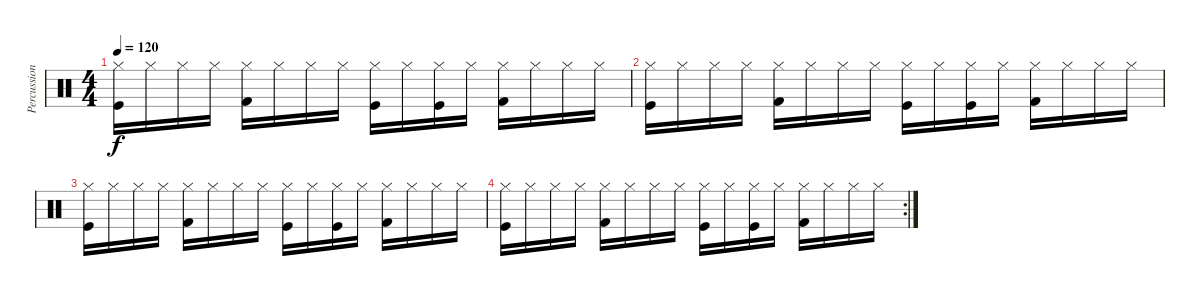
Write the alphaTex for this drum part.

\track ("Percussions" "Percussion") {instrument percussion}
\staff {score}
\articulation defaults
\ts (4 4)
\tempo 120
\clef neutral
\ks c
("Hi-Hat (closed)" "Kick (hit)").16{dy f} "Hi-Hat (closed)".16 "Hi-Hat (closed)".16 "Hi-Hat (closed)".16 ("Hi-Hat (closed)" "Kick (hit) 2").16 "Hi-Hat (closed)".16 "Hi-Hat (closed)".16 "Hi-Hat (closed)".16 ("Hi-Hat (closed)" "Kick (hit)").16 "Hi-Hat (closed)".16 ("Hi-Hat (closed)" "Kick (hit)").16 "Hi-Hat (closed)".16 ("Hi-Hat (closed)" "Kick (hit) 2").16 "Hi-Hat (closed)".16 "Hi-Hat (closed)".16 "Hi-Hat (closed)".16 |
("Hi-Hat (closed)" "Kick (hit)").16 "Hi-Hat (closed)".16 "Hi-Hat (closed)".16 "Hi-Hat (closed)".16 ("Hi-Hat (closed)" "Kick (hit) 2").16 "Hi-Hat (closed)".16 "Hi-Hat (closed)".16 "Hi-Hat (closed)".16 ("Hi-Hat (closed)" "Kick (hit)").16 "Hi-Hat (closed)".16 ("Hi-Hat (closed)" "Kick (hit)").16 "Hi-Hat (closed)".16 ("Hi-Hat (closed)" "Kick (hit) 2").16 "Hi-Hat (closed)".16 "Hi-Hat (closed)".16 "Hi-Hat (closed)".16 |
("Hi-Hat (closed)" "Kick (hit)").16 "Hi-Hat (closed)".16 "Hi-Hat (closed)".16 "Hi-Hat (closed)".16 ("Hi-Hat (closed)" "Kick (hit) 2").16 "Hi-Hat (closed)".16 "Hi-Hat (closed)".16 "Hi-Hat (closed)".16 ("Hi-Hat (closed)" "Kick (hit)").16 "Hi-Hat (closed)".16 ("Hi-Hat (closed)" "Kick (hit)").16 "Hi-Hat (closed)".16 ("Hi-Hat (closed)" "Kick (hit) 2").16 "Hi-Hat (closed)".16 "Hi-Hat (closed)".16 "Hi-Hat (closed)".16 |
\rc 2
("Hi-Hat (closed)" "Kick (hit)").16 "Hi-Hat (closed)".16 "Hi-Hat (closed)".16 "Hi-Hat (closed)".16 ("Hi-Hat (closed)" "Kick (hit) 2").16 "Hi-Hat (closed)".16 "Hi-Hat (closed)".16 "Hi-Hat (closed)".16 ("Hi-Hat (closed)" "Kick (hit)").16 "Hi-Hat (closed)".16 ("Hi-Hat (closed)" "Kick (hit)").16 "Hi-Hat (closed)".16 ("Hi-Hat (closed)" "Kick (hit) 2").16 "Hi-Hat (closed)".16 "Hi-Hat (closed)".16 "Hi-Hat (closed)".16
